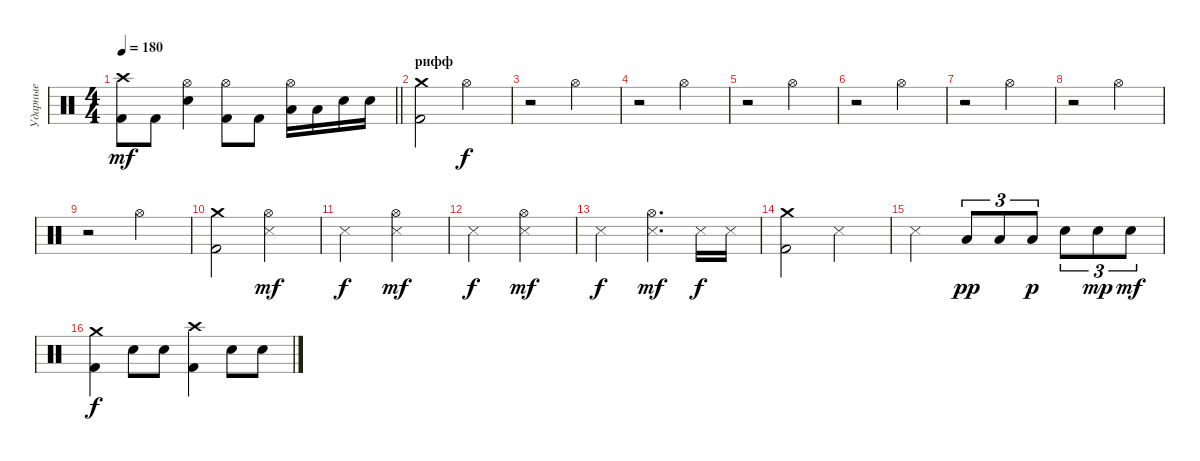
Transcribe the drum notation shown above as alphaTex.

\track ("Ударные" "Ударные") {instrument percussion}
\staff {score}
\articulation defaults
\ts (4 4)
\tempo 180
\clef neutral
\barLineRight lightlight
\ks c
("Crash high (hit)" "Kick (hit) 2").8{dy mf} "Kick (hit) 2".8 ("Hi-Hat (open)" "Snare (hit) 2").4 ("Hi-Hat (open)" "Kick (hit) 2").8 "Kick (hit) 2".8 ("Hi-Hat (open)" "Low Tom (hit)").16 "Low Tom (hit)".16 "Snare (hit) 2".16 "Snare (hit) 2".16 |
\section ("" "рифф")
("Crash medium (hit)" "Kick (hit) 2").2 "Hi-Hat (open)".2{dy f} |
r.2 "Hi-Hat (open)".2 |
r.2 "Hi-Hat (open)".2 |
r.2 "Hi-Hat (open)".2 |
r.2 "Hi-Hat (open)".2 |
r.2 "Hi-Hat (open)".2 |
r.2 "Hi-Hat (open)".2 |
r.2 "Hi-Hat (open)".2 |
("Kick (hit) 2" "Crash medium (hit)").2 ("Hi-Hat (open)" "Snare (side stick) 3").2{dy mf} |
"Snare (side stick) 3".2{dy f} ("Hi-Hat (open)" "Snare (side stick) 3").2{dy mf} |
"Snare (side stick) 3".2{dy f} ("Hi-Hat (open)" "Snare (side stick) 3").2{dy mf} |
"Snare (side stick) 3".2{dy f} ("Hi-Hat (open)" "Snare (side stick) 3").4{d dy mf} "Snare (side stick) 3".16{dy f} "Snare (side stick) 3".16 |
("Kick (hit) 2" "Crash medium (hit)").2 "Snare (side stick) 3".2 |
"Snare (side stick) 3".2 "Low Tom (hit)".8{tu (3 2) dy pp} "Low Tom (hit)".8{tu (3 2)} "Low Tom (hit)".8{tu (3 2) dy p} "Snare (hit) 2".8{tu (3 2)} "Snare (hit) 2".8{tu (3 2) dy mp} "Snare (hit) 2".8{tu (3 2) dy mf} |
("Kick (hit) 2" "Crash medium (hit)").4{dy f} "Snare (hit) 2".8 "Snare (hit) 2".8 ("Crash high (hit)" "Kick (hit) 2").4 "Snare (hit) 2".8 "Snare (hit) 2".8
